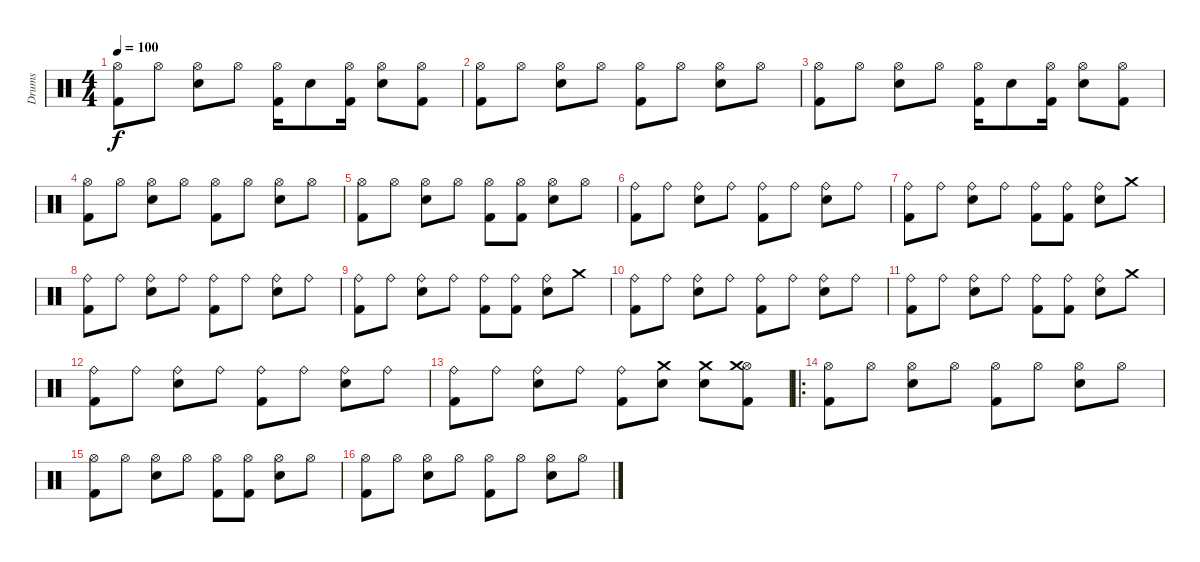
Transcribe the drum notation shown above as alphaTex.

\track ("Drums" "Drums") {instrument percussion}
\staff {score}
\articulation defaults
\ts (4 4)
\tempo 100
\clef neutral
\ks c
("Hi-Hat (open)" "Kick (hit) 2").8{dy f} "Hi-Hat (open)".8 ("Hi-Hat (open)" "Electric Snare (hit)").8 "Hi-Hat (open)".8 ("Hi-Hat (open)" "Kick (hit) 2").16 "Electric Snare (hit)".8 ("Hi-Hat (open)" "Kick (hit) 2").16 ("Hi-Hat (open)" "Electric Snare (hit)").8 ("Hi-Hat (open)" "Kick (hit) 2").8 |
("Hi-Hat (open)" "Kick (hit) 2").8 "Hi-Hat (open)".8 ("Hi-Hat (open)" "Electric Snare (hit)").8 "Hi-Hat (open)".8 ("Hi-Hat (open)" "Kick (hit) 2").8 "Hi-Hat (open)".8 ("Hi-Hat (open)" "Electric Snare (hit)").8 "Hi-Hat (open)".8 |
("Hi-Hat (open)" "Kick (hit) 2").8 "Hi-Hat (open)".8 ("Hi-Hat (open)" "Electric Snare (hit)").8 "Hi-Hat (open)".8 ("Hi-Hat (open)" "Kick (hit) 2").16 "Electric Snare (hit)".8 ("Hi-Hat (open)" "Kick (hit) 2").16 ("Hi-Hat (open)" "Electric Snare (hit)").8 ("Hi-Hat (open)" "Kick (hit) 2").8 |
("Hi-Hat (open)" "Kick (hit) 2").8 "Hi-Hat (open)".8 ("Hi-Hat (open)" "Electric Snare (hit)").8 "Hi-Hat (open)".8 ("Hi-Hat (open)" "Kick (hit) 2").8 "Hi-Hat (open)".8 ("Hi-Hat (open)" "Electric Snare (hit)").8 "Hi-Hat (open)".8 |
("Hi-Hat (open)" "Kick (hit) 2").8 "Hi-Hat (open)".8 ("Hi-Hat (open)" "Electric Snare (hit)").8 "Hi-Hat (open)".8 ("Hi-Hat (open)" "Kick (hit) 2").8 ("Hi-Hat (open)" "Kick (hit) 2").8 ("Hi-Hat (open)" "Electric Snare (hit)").8 "Hi-Hat (open)".8 |
("Ride (bell)" "Kick (hit) 2").8 "Ride (bell)".8 ("Ride (bell)" "Electric Snare (hit)").8 "Ride (bell)".8 ("Ride (bell)" "Kick (hit) 2").8 "Ride (bell)".8 ("Ride (bell)" "Electric Snare (hit)").8 "Ride (bell)".8 |
("Ride (bell)" "Kick (hit) 2").8 "Ride (bell)".8 ("Ride (bell)" "Electric Snare (hit)").8 "Ride (bell)".8 ("Ride (bell)" "Kick (hit) 2").8 ("Ride (bell)" "Kick (hit) 2").8 ("Ride (bell)" "Electric Snare (hit)").8 "Crash medium (hit)".8 |
("Ride (bell)" "Kick (hit) 2").8 "Ride (bell)".8 ("Ride (bell)" "Electric Snare (hit)").8 "Ride (bell)".8 ("Ride (bell)" "Kick (hit) 2").8 "Ride (bell)".8 ("Ride (bell)" "Electric Snare (hit)").8 "Ride (bell)".8 |
("Ride (bell)" "Kick (hit) 2").8 "Ride (bell)".8 ("Ride (bell)" "Electric Snare (hit)").8 "Ride (bell)".8 ("Ride (bell)" "Kick (hit) 2").8 ("Ride (bell)" "Kick (hit) 2").8 ("Ride (bell)" "Electric Snare (hit)").8 "Crash medium (hit)".8 |
("Ride (bell)" "Kick (hit) 2").8 "Ride (bell)".8 ("Ride (bell)" "Electric Snare (hit)").8 "Ride (bell)".8 ("Ride (bell)" "Kick (hit) 2").8 "Ride (bell)".8 ("Ride (bell)" "Electric Snare (hit)").8 "Ride (bell)".8 |
("Ride (bell)" "Kick (hit) 2").8 "Ride (bell)".8 ("Ride (bell)" "Electric Snare (hit)").8 "Ride (bell)".8 ("Ride (bell)" "Kick (hit) 2").8 ("Ride (bell)" "Kick (hit) 2").8 ("Ride (bell)" "Electric Snare (hit)").8 "Crash medium (hit)".8 |
("Ride (bell)" "Kick (hit) 2").8 "Ride (bell)".8 ("Ride (bell)" "Electric Snare (hit)").8 "Ride (bell)".8 ("Ride (bell)" "Kick (hit) 2").8 "Ride (bell)".8 ("Ride (bell)" "Electric Snare (hit)").8 "Ride (bell)".8 |
("Ride (bell)" "Kick (hit) 2").8 "Ride (bell)".8 ("Ride (bell)" "Electric Snare (hit)").8 "Ride (bell)".8 ("Ride (bell)" "Kick (hit) 2").8 ("Crash medium (hit)" "Electric Snare (hit)").8 ("Crash medium (hit)" "Electric Snare (hit)").8 ("Hi-Hat (open)" "Crash medium (hit)" "Kick (hit) 2").8 |
\ro
("Hi-Hat (open)" "Kick (hit) 2").8 "Hi-Hat (open)".8 ("Hi-Hat (open)" "Electric Snare (hit)").8 "Hi-Hat (open)".8 ("Hi-Hat (open)" "Kick (hit) 2").8 "Hi-Hat (open)".8 ("Hi-Hat (open)" "Electric Snare (hit)").8 "Hi-Hat (open)".8 |
("Hi-Hat (open)" "Kick (hit) 2").8 "Hi-Hat (open)".8 ("Hi-Hat (open)" "Electric Snare (hit)").8 "Hi-Hat (open)".8 ("Hi-Hat (open)" "Kick (hit) 2").8 ("Hi-Hat (open)" "Kick (hit) 2").8 ("Hi-Hat (open)" "Electric Snare (hit)").8 "Hi-Hat (open)".8 |
("Hi-Hat (open)" "Kick (hit) 2").8 "Hi-Hat (open)".8 ("Hi-Hat (open)" "Electric Snare (hit)").8 "Hi-Hat (open)".8 ("Hi-Hat (open)" "Kick (hit) 2").8 "Hi-Hat (open)".8 ("Hi-Hat (open)" "Electric Snare (hit)").8 "Hi-Hat (open)".8
